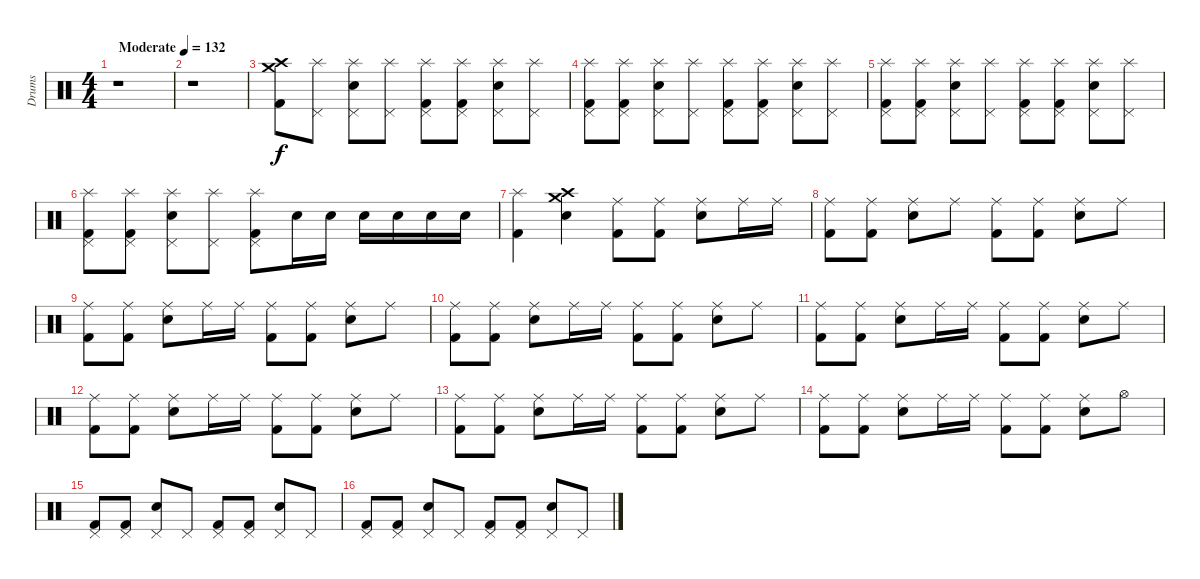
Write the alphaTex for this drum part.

\track ("Drums" "Drums") {instrument percussion}
\staff {score}
\articulation defaults
\ts (4 4)
\tempo (132 "Moderate")
\clef neutral
\ks c
r.1{dy f} |
r.1 |
("Crash high (hit)" "Crash medium (hit)" "Kick (hit) 2").8 ("Pedal Hi-Hat (hit)" "Splash (hit)").8 ("Pedal Hi-Hat (hit)" "Splash (hit)" "Snare (hit) 2").8 ("Pedal Hi-Hat (hit)" "Splash (hit)").8 ("Pedal Hi-Hat (hit)" "Splash (hit)" "Kick (hit) 2").8 ("Pedal Hi-Hat (hit)" "Splash (hit)" "Kick (hit) 2").8 ("Pedal Hi-Hat (hit)" "Splash (hit)" "Snare (hit) 2").8 ("Pedal Hi-Hat (hit)" "Splash (hit)").8 |
("Splash (hit)" "Pedal Hi-Hat (hit)" "Kick (hit) 2").8 ("Splash (hit)" "Pedal Hi-Hat (hit)" "Kick (hit) 2").8 ("Splash (hit)" "Pedal Hi-Hat (hit)" "Snare (hit) 2").8 ("Splash (hit)" "Pedal Hi-Hat (hit)").8 ("Splash (hit)" "Pedal Hi-Hat (hit)" "Kick (hit) 2").8 ("Splash (hit)" "Pedal Hi-Hat (hit)" "Kick (hit) 2").8 ("Splash (hit)" "Pedal Hi-Hat (hit)" "Snare (hit) 2").8 ("Splash (hit)" "Pedal Hi-Hat (hit)").8 |
("Splash (hit)" "Pedal Hi-Hat (hit)" "Kick (hit) 2").8 ("Splash (hit)" "Pedal Hi-Hat (hit)" "Kick (hit) 2").8 ("Pedal Hi-Hat (hit)" "Splash (hit)" "Snare (hit) 2").8 ("Splash (hit)" "Pedal Hi-Hat (hit)").8 ("Splash (hit)" "Pedal Hi-Hat (hit)" "Kick (hit) 2").8 ("Splash (hit)" "Pedal Hi-Hat (hit)" "Kick (hit) 2").8 ("Pedal Hi-Hat (hit)" "Splash (hit)" "Snare (hit) 2").8 ("Splash (hit)" "Pedal Hi-Hat (hit)").8 |
("Pedal Hi-Hat (hit)" "Splash (hit)" "Kick (hit) 2").8 ("Pedal Hi-Hat (hit)" "Splash (hit)" "Kick (hit) 2").8 ("Pedal Hi-Hat (hit)" "Splash (hit)" "Snare (hit) 2").8 ("Pedal Hi-Hat (hit)" "Splash (hit)").8 ("Pedal Hi-Hat (hit)" "Splash (hit)" "Kick (hit) 2").8 "Snare (hit) 2".16 "Snare (hit) 2".16 "Snare (hit) 2".16 "Snare (hit) 2".16 "Snare (hit) 2".16 "Snare (hit) 2".16 |
("Splash (hit)" "Kick (hit) 2").4 ("Crash high (hit)" "Crash medium (hit)" "Snare (hit) 2").4 ("Ride (middle)" "Kick (hit) 2").8 ("Ride (middle)" "Kick (hit) 2").8 ("Ride (middle)" "Snare (hit) 2").8 "Ride (middle)".16 "Ride (middle)".16 |
("Ride (middle)" "Kick (hit) 2").8 ("Ride (middle)" "Kick (hit) 2").8 ("Ride (middle)" "Snare (hit) 2").8 "Ride (middle)".8 ("Ride (middle)" "Kick (hit) 2").8 ("Ride (middle)" "Kick (hit) 2").8 ("Ride (middle)" "Snare (hit) 2").8 "Ride (middle)".8 |
("Ride (middle)" "Kick (hit) 2").8 ("Ride (middle)" "Kick (hit) 2").8 ("Ride (middle)" "Snare (hit) 2").8 "Ride (middle)".16 "Ride (middle)".16 ("Ride (middle)" "Kick (hit) 2").8 ("Ride (middle)" "Kick (hit) 2").8 ("Ride (middle)" "Snare (hit) 2").8 "Ride (middle)".8 |
("Ride (middle)" "Kick (hit) 2").8 ("Ride (middle)" "Kick (hit) 2").8 ("Ride (middle)" "Snare (hit) 2").8 "Ride (middle)".16 "Ride (middle)".16 ("Ride (middle)" "Kick (hit) 2").8 ("Ride (middle)" "Kick (hit) 2").8 ("Ride (middle)" "Snare (hit) 2").8 "Ride (middle)".8 |
("Ride (middle)" "Kick (hit) 2").8 ("Ride (middle)" "Kick (hit) 2").8 ("Ride (middle)" "Snare (hit) 2").8 "Ride (middle)".16 "Ride (middle)".16 ("Ride (middle)" "Kick (hit) 2").8 ("Ride (middle)" "Kick (hit) 2").8 ("Ride (middle)" "Snare (hit) 2").8 "Ride (middle)".8 |
("Ride (middle)" "Kick (hit) 2").8 ("Ride (middle)" "Kick (hit) 2").8 ("Ride (middle)" "Snare (hit) 2").8 "Ride (middle)".16 "Ride (middle)".16 ("Ride (middle)" "Kick (hit) 2").8 ("Ride (middle)" "Kick (hit) 2").8 ("Ride (middle)" "Snare (hit) 2").8 "Ride (middle)".8 |
("Ride (middle)" "Kick (hit) 2").8 ("Ride (middle)" "Kick (hit) 2").8 ("Ride (middle)" "Snare (hit) 2").8 "Ride (middle)".16 "Ride (middle)".16 ("Ride (middle)" "Kick (hit) 2").8 ("Ride (middle)" "Kick (hit) 2").8 ("Ride (middle)" "Snare (hit) 2").8 "Ride (middle)".8 |
("Ride (middle)" "Kick (hit) 2").8 ("Ride (middle)" "Kick (hit) 2").8 ("Ride (middle)" "Snare (hit) 2").8 "Ride (middle)".16 "Ride (middle)".16 ("Ride (middle)" "Kick (hit) 2").8 ("Ride (middle)" "Kick (hit) 2").8 ("Ride (middle)" "Snare (hit) 2").8 "Hi-Hat (open)".8 |
("Kick (hit) 2" "Pedal Hi-Hat (hit)").8 ("Kick (hit) 2" "Pedal Hi-Hat (hit)").8 ("Pedal Hi-Hat (hit)" "Snare (hit) 2").8 "Pedal Hi-Hat (hit)".8 ("Kick (hit) 2" "Pedal Hi-Hat (hit)").8 ("Kick (hit) 2" "Pedal Hi-Hat (hit)").8 ("Pedal Hi-Hat (hit)" "Snare (hit) 2").8 "Pedal Hi-Hat (hit)".8 |
("Kick (hit) 2" "Pedal Hi-Hat (hit)").8 ("Kick (hit) 2" "Pedal Hi-Hat (hit)").8 ("Pedal Hi-Hat (hit)" "Snare (hit) 2").8 "Pedal Hi-Hat (hit)".8 ("Kick (hit) 2" "Pedal Hi-Hat (hit)").8 ("Kick (hit) 2" "Pedal Hi-Hat (hit)").8 ("Pedal Hi-Hat (hit)" "Snare (hit) 2").8 "Pedal Hi-Hat (hit)".8
